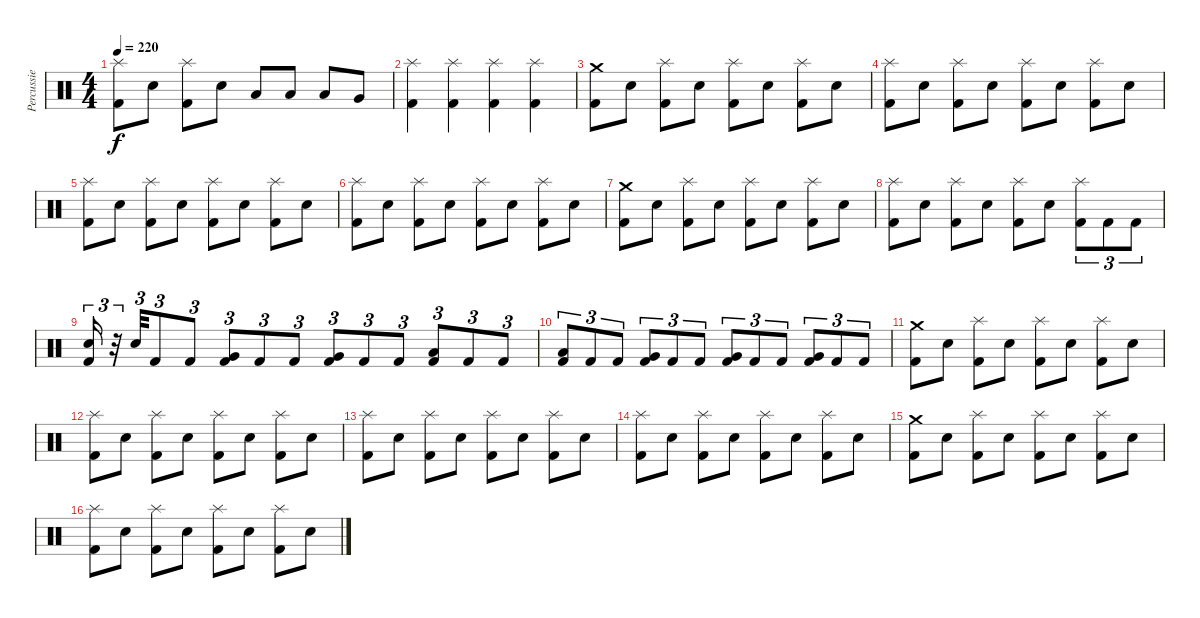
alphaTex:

\track ("Percussie" "Percussie") {instrument percussion}
\staff {score}
\articulation defaults
\ts (4 4)
\tempo 220
\clef neutral
\ks c
("Splash (hit)" "Kick (hit) 2").8{dy f} "Electric Snare (hit)".8 ("Splash (hit)" "Kick (hit) 2").8 "Electric Snare (hit)".8 "Low Tom (hit)".8 "Low Tom (hit)".8 "Low Tom (hit)".8 "Very Low Tom (hit)".8 |
("Splash (hit)" "Kick (hit) 2").4 ("Splash (hit)" "Kick (hit) 2").4 ("Splash (hit)" "Kick (hit) 2").4 ("Splash (hit)" "Kick (hit) 2").4 |
("Crash medium (hit)" "Kick (hit) 2").8 "Electric Snare (hit)".8 ("Splash (hit)" "Kick (hit) 2").8 "Electric Snare (hit)".8 ("Splash (hit)" "Kick (hit) 2").8 "Electric Snare (hit)".8 ("Splash (hit)" "Kick (hit) 2").8 "Electric Snare (hit)".8 |
("Splash (hit)" "Kick (hit) 2").8 "Electric Snare (hit)".8 ("Splash (hit)" "Kick (hit) 2").8 "Electric Snare (hit)".8 ("Splash (hit)" "Kick (hit) 2").8 "Electric Snare (hit)".8 ("Splash (hit)" "Kick (hit) 2").8 "Electric Snare (hit)".8 |
("Splash (hit)" "Kick (hit) 2").8 "Electric Snare (hit)".8 ("Splash (hit)" "Kick (hit) 2").8 "Electric Snare (hit)".8 ("Splash (hit)" "Kick (hit) 2").8 "Electric Snare (hit)".8 ("Splash (hit)" "Kick (hit) 2").8 "Electric Snare (hit)".8 |
("Splash (hit)" "Kick (hit) 2").8 "Electric Snare (hit)".8 ("Splash (hit)" "Kick (hit) 2").8 "Electric Snare (hit)".8 ("Splash (hit)" "Kick (hit) 2").8 "Electric Snare (hit)".8 ("Splash (hit)" "Kick (hit) 2").8 "Electric Snare (hit)".8 |
("Crash medium (hit)" "Kick (hit) 2").8 "Electric Snare (hit)".8 ("Splash (hit)" "Kick (hit) 2").8 "Electric Snare (hit)".8 ("Splash (hit)" "Kick (hit) 2").8 "Electric Snare (hit)".8 ("Splash (hit)" "Kick (hit) 2").8 "Electric Snare (hit)".8 |
("Splash (hit)" "Kick (hit) 2").8 "Electric Snare (hit)".8 ("Splash (hit)" "Kick (hit) 2").8 "Electric Snare (hit)".8 ("Splash (hit)" "Kick (hit) 2").8 "Electric Snare (hit)".8 ("Splash (hit)" "Kick (hit) 2").8{tu (3 2)} "Kick (hit) 2".8{tu (3 2)} "Kick (hit) 2".8{tu (3 2)} |
("Electric Snare (hit)" "Kick (hit) 2").16{tu (3 2)} r.32{tu (3 2)} "Electric Snare (hit)".32{tu (3 2)} "Kick (hit) 2".8{tu (3 2)} "Kick (hit) 2".8{tu (3 2)} ("Very Low Tom (hit)" "Kick (hit) 2").8{tu (3 2)} "Kick (hit) 2".8{tu (3 2)} "Kick (hit) 2".8{tu (3 2)} ("Very Low Tom (hit)" "Kick (hit) 2").8{tu (3 2)} "Kick (hit) 2".8{tu (3 2)} "Kick (hit) 2".8{tu (3 2)} ("Low Tom (hit)" "Kick (hit) 2").8{tu (3 2)} "Kick (hit) 2".8{tu (3 2)} "Kick (hit) 2".8{tu (3 2)} |
("Low Tom (hit)" "Kick (hit) 2").8{tu (3 2)} "Kick (hit) 2".8{tu (3 2)} "Kick (hit) 2".8{tu (3 2)} ("Very Low Tom (hit)" "Kick (hit) 2").8{tu (3 2)} "Kick (hit) 2".8{tu (3 2)} "Kick (hit) 2".8{tu (3 2)} ("Very Low Tom (hit)" "Kick (hit) 2").8{tu (3 2)} "Kick (hit) 2".8{tu (3 2)} "Kick (hit) 2".8{tu (3 2)} ("Very Low Tom (hit)" "Kick (hit) 2").8{tu (3 2)} "Kick (hit) 2".8{tu (3 2)} "Kick (hit) 2".8{tu (3 2)} |
("Crash medium (hit)" "Kick (hit) 2").8 "Electric Snare (hit)".8 ("Splash (hit)" "Kick (hit) 2").8 "Electric Snare (hit)".8 ("Splash (hit)" "Kick (hit) 2").8 "Electric Snare (hit)".8 ("Splash (hit)" "Kick (hit) 2").8 "Electric Snare (hit)".8 |
("Splash (hit)" "Kick (hit) 2").8 "Electric Snare (hit)".8 ("Splash (hit)" "Kick (hit) 2").8 "Electric Snare (hit)".8 ("Splash (hit)" "Kick (hit) 2").8 "Electric Snare (hit)".8 ("Splash (hit)" "Kick (hit) 2").8 "Electric Snare (hit)".8 |
("Splash (hit)" "Kick (hit) 2").8 "Electric Snare (hit)".8 ("Splash (hit)" "Kick (hit) 2").8 "Electric Snare (hit)".8 ("Splash (hit)" "Kick (hit) 2").8 "Electric Snare (hit)".8 ("Splash (hit)" "Kick (hit) 2").8 "Electric Snare (hit)".8 |
("Splash (hit)" "Kick (hit) 2").8 "Electric Snare (hit)".8 ("Splash (hit)" "Kick (hit) 2").8 "Electric Snare (hit)".8 ("Splash (hit)" "Kick (hit) 2").8 "Electric Snare (hit)".8 ("Splash (hit)" "Kick (hit) 2").8 "Electric Snare (hit)".8 |
("Crash medium (hit)" "Kick (hit) 2").8 "Electric Snare (hit)".8 ("Splash (hit)" "Kick (hit) 2").8 "Electric Snare (hit)".8 ("Splash (hit)" "Kick (hit) 2").8 "Electric Snare (hit)".8 ("Splash (hit)" "Kick (hit) 2").8 "Electric Snare (hit)".8 |
("Splash (hit)" "Kick (hit) 2").8 "Electric Snare (hit)".8 ("Splash (hit)" "Kick (hit) 2").8 "Electric Snare (hit)".8 ("Splash (hit)" "Kick (hit) 2").8 "Electric Snare (hit)".8 ("Splash (hit)" "Kick (hit) 2").8 "Electric Snare (hit)".8
